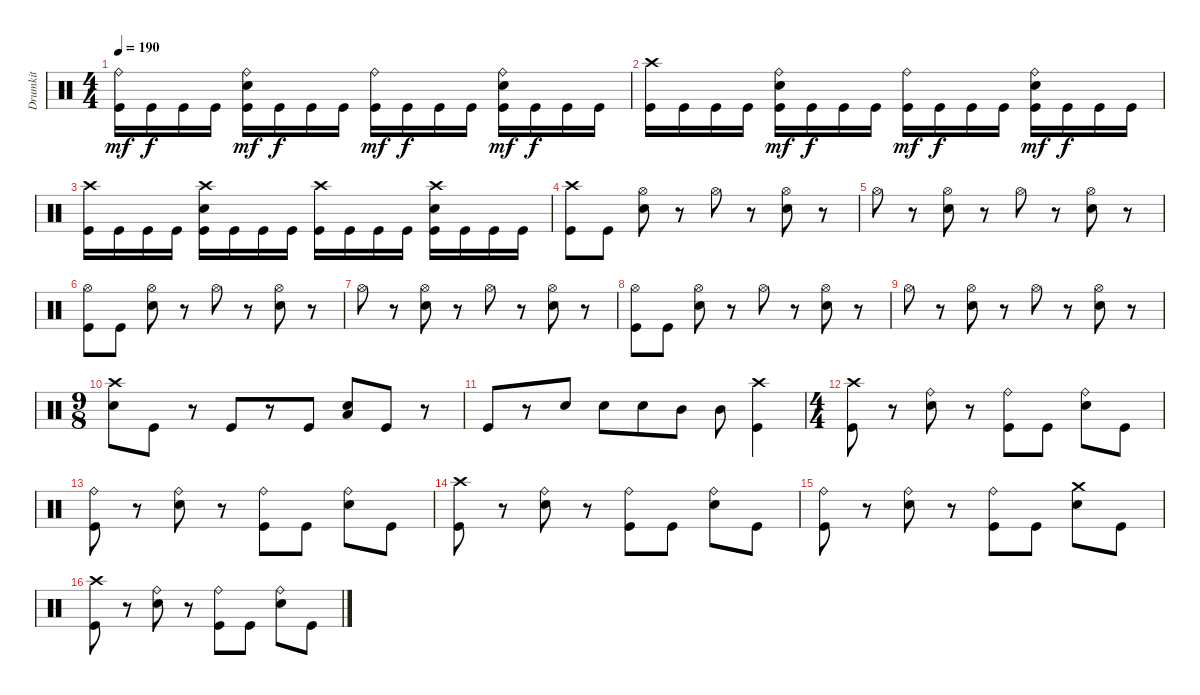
\track ("Drumkit" "Drumkit") {instrument percussion}
\staff {score}
\articulation defaults
\ts (4 4)
\tempo 190
\clef neutral
\ks c
("Ride (bell)" "Kick (hit)").16{dy mf} "Kick (hit)".16{dy f} "Kick (hit)".16 "Kick (hit)".16 ("Ride (bell)" "Snare (hit) 2" "Kick (hit)").16{dy mf} "Kick (hit)".16{dy f} "Kick (hit)".16 "Kick (hit)".16 ("Ride (bell)" "Kick (hit)").16{dy mf} "Kick (hit)".16{dy f} "Kick (hit)".16 "Kick (hit)".16 ("Ride (bell)" "Snare (hit) 2" "Kick (hit)").16{dy mf} "Kick (hit)".16{dy f} "Kick (hit)".16 "Kick (hit)".16 |
("Crash high (hit)" "Kick (hit)").16 "Kick (hit)".16 "Kick (hit)".16 "Kick (hit)".16 ("Ride (bell)" "Snare (hit) 2" "Kick (hit)").16{dy mf} "Kick (hit)".16{dy f} "Kick (hit)".16 "Kick (hit)".16 ("Ride (bell)" "Kick (hit)").16{dy mf} "Kick (hit)".16{dy f} "Kick (hit)".16 "Kick (hit)".16 ("Ride (bell)" "Snare (hit) 2" "Kick (hit)").16{dy mf} "Kick (hit)".16{dy f} "Kick (hit)".16 "Kick (hit)".16 |
("Crash high (hit)" "Kick (hit)").16 "Kick (hit)".16 "Kick (hit)".16 "Kick (hit)".16 ("Crash high (hit)" "Snare (hit) 2" "Kick (hit)").16 "Kick (hit)".16 "Kick (hit)".16 "Kick (hit)".16 ("Crash high (hit)" "Kick (hit)").16 "Kick (hit)".16 "Kick (hit)".16 "Kick (hit)".16 ("Crash high (hit)" "Snare (hit) 2" "Kick (hit)").16 "Kick (hit)".16 "Kick (hit)".16 "Kick (hit)".16 |
("Crash high (hit)" "Kick (hit)").8 "Kick (hit)".8 ("Hi-Hat (open)" "Snare (hit) 2").8 r.8 "Hi-Hat (open)".8 r.8 ("Hi-Hat (open)" "Snare (hit) 2").8 r.8 |
"Hi-Hat (open)".8 r.8 ("Hi-Hat (open)" "Snare (hit) 2").8 r.8 "Hi-Hat (open)".8 r.8 ("Hi-Hat (open)" "Snare (hit) 2").8 r.8 |
("Hi-Hat (open)" "Kick (hit)").8 "Kick (hit)".8 ("Hi-Hat (open)" "Snare (hit) 2").8 r.8 "Hi-Hat (open)".8 r.8 ("Hi-Hat (open)" "Snare (hit) 2").8 r.8 |
"Hi-Hat (open)".8 r.8 ("Hi-Hat (open)" "Snare (hit) 2").8 r.8 "Hi-Hat (open)".8 r.8 ("Hi-Hat (open)" "Snare (hit) 2").8 r.8 |
("Hi-Hat (open)" "Kick (hit)").8 "Kick (hit)".8 ("Hi-Hat (open)" "Snare (hit) 2").8 r.8 "Hi-Hat (open)".8 r.8 ("Hi-Hat (open)" "Snare (hit) 2").8 r.8 |
"Hi-Hat (open)".8 r.8 ("Hi-Hat (open)" "Snare (hit) 2").8 r.8 "Hi-Hat (open)".8 r.8 ("Hi-Hat (open)" "Snare (hit) 2").8 r.8 |
\ts (9 8)
("Crash high (hit)" "Snare (hit) 2").8 "Kick (hit)".8 r.8 "Kick (hit)".8 r.8 "Kick (hit)".8 ("Low Tom (hit)" "Snare (hit) 2").8 "Kick (hit)".8 r.8 |
"Kick (hit)".8 r.8 "Snare (hit) 2".8 "Snare (hit) 2".8 "Snare (hit) 2".8 "Mid Tom (hit)".8 "Mid Tom (hit)".8 ("Crash high (hit)" "Kick (hit)").4 |
\ts (4 4)
("Crash high (hit)" "Kick (hit)").8 r.8 ("Ride (bell)" "Snare (hit) 2").8 r.8 ("Ride (bell)" "Kick (hit)").8 "Kick (hit)".8 ("Ride (bell)" "Snare (hit) 2").8 "Kick (hit)".8 |
("Ride (bell)" "Kick (hit)").8 r.8 ("Ride (bell)" "Snare (hit) 2").8 r.8 ("Ride (bell)" "Kick (hit)").8 "Kick (hit)".8 ("Ride (bell)" "Snare (hit) 2").8 "Kick (hit)".8 |
("Crash high (hit)" "Kick (hit)").8 r.8 ("Ride (bell)" "Snare (hit) 2").8 r.8 ("Ride (bell)" "Kick (hit)").8 "Kick (hit)".8 ("Ride (bell)" "Snare (hit) 2").8 "Kick (hit)".8 |
("Ride (bell)" "Kick (hit)").8 r.8 ("Ride (bell)" "Snare (hit) 2").8 r.8 ("Ride (bell)" "Kick (hit)").8 "Kick (hit)".8 ("Crash medium (hit)" "Snare (hit) 2").8 "Kick (hit)".8 |
("Crash high (hit)" "Kick (hit)").8 r.8 ("Ride (bell)" "Snare (hit) 2").8 r.8 ("Ride (bell)" "Kick (hit)").8 "Kick (hit)".8 ("Ride (bell)" "Snare (hit) 2").8 "Kick (hit)".8
